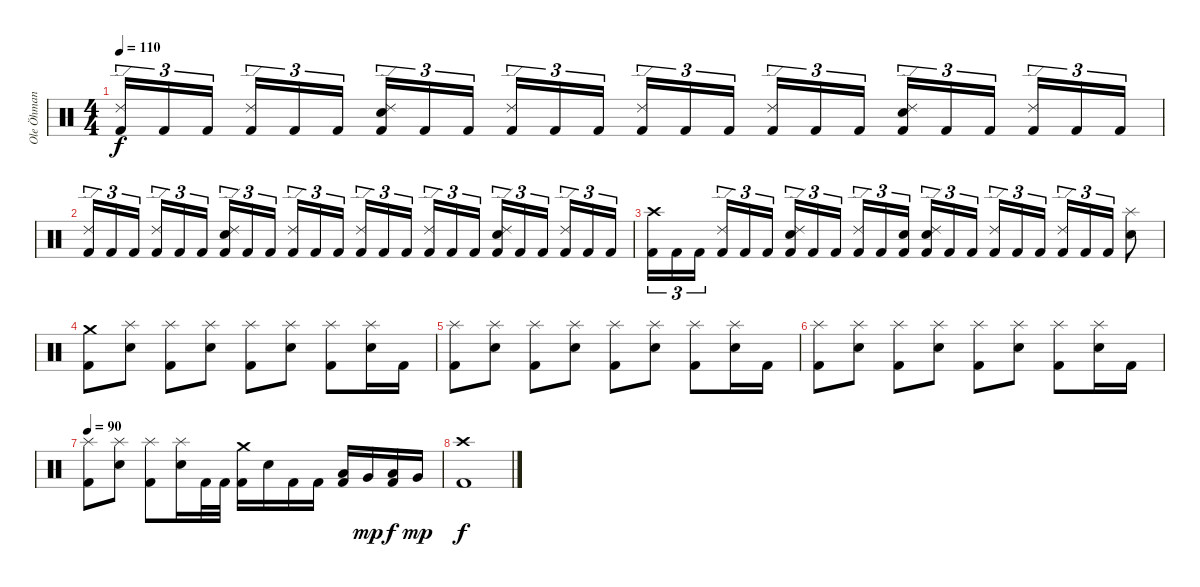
\track ("Ole Öhman" "Ole Öhman") {instrument percussion}
\staff {score}
\articulation defaults
\ts (4 4)
\tempo 110
\clef neutral
\ks c
("Ride (edge) 2" "Kick (hit) 2").16{tu (3 2) dy f} "Kick (hit) 2".16{tu (3 2)} "Kick (hit) 2".16{tu (3 2) beam splitsecondary} ("Ride (edge) 2" "Kick (hit) 2").16{tu (3 2)} "Kick (hit) 2".16{tu (3 2)} "Kick (hit) 2".16{tu (3 2)} ("Ride (edge) 2" "Electric Snare (hit)" "Kick (hit) 2").16{tu (3 2)} "Kick (hit) 2".16{tu (3 2)} "Kick (hit) 2".16{tu (3 2) beam splitsecondary} ("Ride (edge) 2" "Kick (hit) 2").16{tu (3 2)} "Kick (hit) 2".16{tu (3 2)} "Kick (hit) 2".16{tu (3 2)} ("Ride (edge) 2" "Kick (hit) 2").16{tu (3 2)} "Kick (hit) 2".16{tu (3 2)} "Kick (hit) 2".16{tu (3 2) beam splitsecondary} ("Ride (edge) 2" "Kick (hit) 2").16{tu (3 2)} "Kick (hit) 2".16{tu (3 2)} "Kick (hit) 2".16{tu (3 2)} ("Ride (edge) 2" "Electric Snare (hit)" "Kick (hit) 2").16{tu (3 2)} "Kick (hit) 2".16{tu (3 2)} "Kick (hit) 2".16{tu (3 2) beam splitsecondary} ("Ride (edge) 2" "Kick (hit) 2").16{tu (3 2)} "Kick (hit) 2".16{tu (3 2)} "Kick (hit) 2".16{tu (3 2)} |
("Ride (edge) 2" "Kick (hit) 2").16{tu (3 2)} "Kick (hit) 2".16{tu (3 2)} "Kick (hit) 2".16{tu (3 2) beam splitsecondary} ("Ride (edge) 2" "Kick (hit) 2").16{tu (3 2)} "Kick (hit) 2".16{tu (3 2)} "Kick (hit) 2".16{tu (3 2)} ("Ride (edge) 2" "Electric Snare (hit)" "Kick (hit) 2").16{tu (3 2)} "Kick (hit) 2".16{tu (3 2)} "Kick (hit) 2".16{tu (3 2) beam splitsecondary} ("Ride (edge) 2" "Kick (hit) 2").16{tu (3 2)} "Kick (hit) 2".16{tu (3 2)} "Kick (hit) 2".16{tu (3 2)} ("Ride (edge) 2" "Kick (hit) 2").16{tu (3 2)} "Kick (hit) 2".16{tu (3 2)} "Kick (hit) 2".16{tu (3 2) beam splitsecondary} ("Ride (edge) 2" "Kick (hit) 2").16{tu (3 2)} "Kick (hit) 2".16{tu (3 2)} "Kick (hit) 2".16{tu (3 2)} ("Ride (edge) 2" "Electric Snare (hit)" "Kick (hit) 2").16{tu (3 2)} "Kick (hit) 2".16{tu (3 2)} "Kick (hit) 2".16{tu (3 2) beam splitsecondary} ("Ride (edge) 2" "Kick (hit) 2").16{tu (3 2)} "Kick (hit) 2".16{tu (3 2)} "Kick (hit) 2".16{tu (3 2)} |
("Crash high (hit)" "Kick (hit) 2").16{tu (3 2)} "Kick (hit) 2".16{tu (3 2)} "Kick (hit) 2".16{tu (3 2) beam splitsecondary} ("Ride (edge) 2" "Kick (hit) 2").16{tu (3 2)} "Kick (hit) 2".16{tu (3 2)} "Kick (hit) 2".16{tu (3 2)} ("Ride (edge) 2" "Electric Snare (hit)" "Kick (hit) 2").16{tu (3 2)} "Kick (hit) 2".16{tu (3 2)} "Kick (hit) 2".16{tu (3 2) beam splitsecondary} ("Ride (edge) 2" "Kick (hit) 2").16{tu (3 2)} "Kick (hit) 2".16{tu (3 2)} ("Electric Snare (hit)" "Kick (hit) 2").16{tu (3 2)} ("Ride (edge) 2" "Electric Snare (hit)" "Kick (hit) 2").16{tu (3 2)} "Kick (hit) 2".16{tu (3 2)} "Kick (hit) 2".16{tu (3 2) beam splitsecondary} ("Ride (edge) 2" "Kick (hit) 2").16{tu (3 2)} "Kick (hit) 2".16{tu (3 2)} "Kick (hit) 2".16{tu (3 2)} ("Ride (edge) 2" "Kick (hit) 2").16{tu (3 2)} "Kick (hit) 2".16{tu (3 2)} "Kick (hit) 2".16{tu (3 2)} ("Splash (hit)" "Electric Snare (hit)").8 |
("Crash medium (hit)" "Kick (hit) 2").8 ("Splash (hit)" "Electric Snare (hit)").8 ("Splash (hit)" "Kick (hit) 2").8 ("Splash (hit)" "Electric Snare (hit)").8 ("Splash (hit)" "Kick (hit) 2").8 ("Splash (hit)" "Electric Snare (hit)").8 ("Splash (hit)" "Kick (hit) 2").8 ("Splash (hit)" "Electric Snare (hit)").16 "Kick (hit) 2".16 |
("Splash (hit)" "Kick (hit) 2").8 ("Splash (hit)" "Electric Snare (hit)").8 ("Splash (hit)" "Kick (hit) 2").8 ("Splash (hit)" "Electric Snare (hit)").8 ("Splash (hit)" "Kick (hit) 2").8 ("Splash (hit)" "Electric Snare (hit)").8 ("Splash (hit)" "Kick (hit) 2").8 ("Splash (hit)" "Electric Snare (hit)").16 "Kick (hit) 2".16 |
("Splash (hit)" "Kick (hit) 2").8 ("Splash (hit)" "Electric Snare (hit)").8 ("Splash (hit)" "Kick (hit) 2").8 ("Splash (hit)" "Electric Snare (hit)").8 ("Splash (hit)" "Kick (hit) 2").8 ("Splash (hit)" "Electric Snare (hit)").8 ("Splash (hit)" "Kick (hit) 2").8 ("Splash (hit)" "Electric Snare (hit)").16 "Kick (hit) 2".16 |
\tempo 90
("Splash (hit)" "Kick (hit) 2").8 ("Splash (hit)" "Electric Snare (hit)").8 ("Splash (hit)" "Kick (hit) 2").8 ("Splash (hit)" "Electric Snare (hit)").16 "Kick (hit) 2".32 "Kick (hit) 2".32 ("Crash medium (hit)" "Kick (hit) 2").16 "Electric Snare (hit)".16 "Kick (hit) 2".16 "Kick (hit) 2".16 ("Low Floor Tom (hit)" "Kick (hit) 2").16 "Very Low Tom (hit)".16{dy mp} ("Low Floor Tom (hit)" "Kick (hit) 2").16{dy f} "Very Low Tom (hit)".16{dy mp} |
("Crash high (hit)" "Kick (hit) 2").1{dy f}
